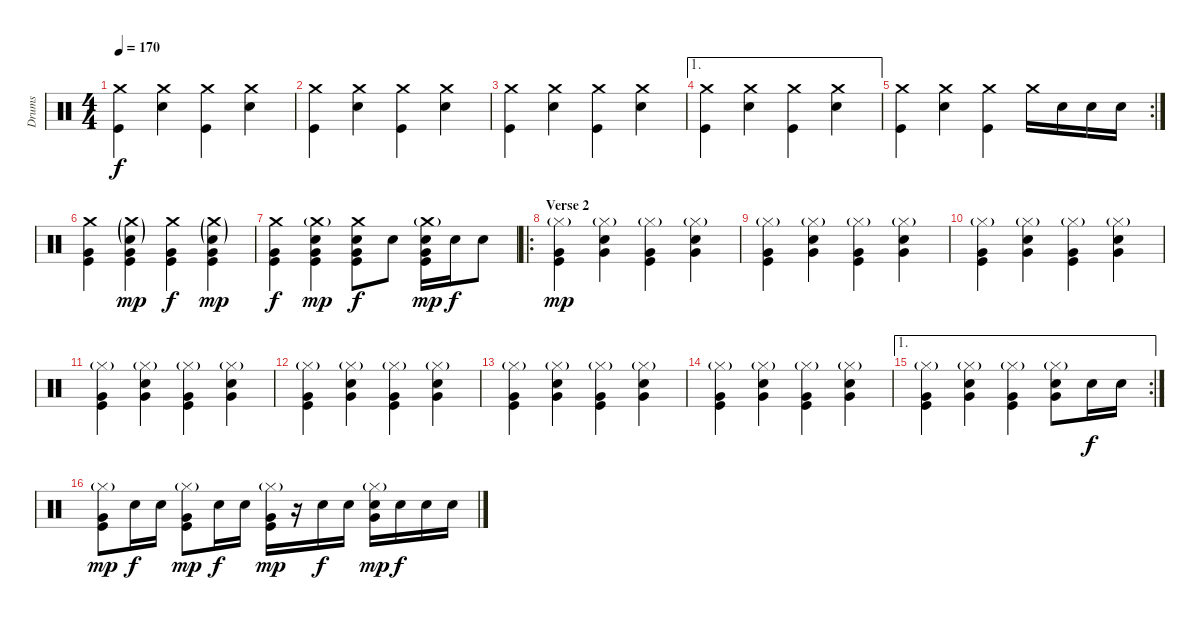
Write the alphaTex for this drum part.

\track ("Drums" "Drums") {instrument percussion}
\staff {score}
\articulation defaults
\ts (4 4)
\tempo 170
\clef neutral
\ks c
("Crash medium (hit)" "Kick (hit)").4{dy f} ("Crash medium (hit)" "Snare (hit) 2").4 ("Crash medium (hit)" "Kick (hit)").4 ("Crash medium (hit)" "Snare (hit) 2").4 |
("Crash medium (hit)" "Kick (hit)").4 ("Crash medium (hit)" "Snare (hit) 2").4 ("Crash medium (hit)" "Kick (hit)").4 ("Crash medium (hit)" "Snare (hit) 2").4 |
("Crash medium (hit)" "Kick (hit)").4 ("Crash medium (hit)" "Snare (hit) 2").4 ("Crash medium (hit)" "Kick (hit)").4 ("Crash medium (hit)" "Snare (hit) 2").4 |
\ae 1
("Crash medium (hit)" "Kick (hit)").4 ("Crash medium (hit)" "Snare (hit) 2").4 ("Crash medium (hit)" "Kick (hit)").4 ("Crash medium (hit)" "Snare (hit) 2").4 |
\rc 2
("Crash medium (hit)" "Kick (hit)").4 ("Crash medium (hit)" "Snare (hit) 2").4 ("Crash medium (hit)" "Kick (hit)").4 "Crash medium (hit)".16 "Snare (hit) 2".16 "Snare (hit) 2".16 "Snare (hit) 2".16 |
("Crash medium (hit)" "Very Low Tom (hit)" "Kick (hit)").4 ("Crash medium (hit)"{g} "Very Low Tom (hit)" "Snare (hit) 2"{g} "Kick (hit)").4{dy mp} ("Crash medium (hit)" "Very Low Tom (hit)" "Kick (hit)").4{dy f} ("Crash medium (hit)"{g} "Very Low Tom (hit)" "Snare (hit) 2"{g} "Kick (hit)").4{dy mp} |
("Crash medium (hit)" "Very Low Tom (hit)" "Kick (hit)").4{dy f} ("Crash medium (hit)"{g} "Very Low Tom (hit)" "Snare (hit) 2" "Kick (hit)").4{dy mp} ("Crash medium (hit)" "Very Low Tom (hit)" "Snare (hit) 2" "Kick (hit)").8{dy f} "Snare (hit) 2".8 ("Crash medium (hit)"{g} "Very Low Tom (hit)" "Snare (hit) 2" "Kick (hit)").16{dy mp} "Snare (hit) 2".16{dy f} "Snare (hit) 2".8 |
\ro
\section ("" "Verse 2")
("Very Low Tom (hit)" "Hi-Hat (closed)"{g} "Kick (hit)").4{dy mp} ("Very Low Tom (hit)" "Hi-Hat (closed)"{g} "Snare (hit) 2").4 ("Very Low Tom (hit)" "Hi-Hat (closed)"{g} "Kick (hit)").4 ("Very Low Tom (hit)" "Hi-Hat (closed)"{g} "Snare (hit) 2").4 |
("Very Low Tom (hit)" "Hi-Hat (closed)"{g} "Kick (hit)").4 ("Very Low Tom (hit)" "Hi-Hat (closed)"{g} "Snare (hit) 2").4 ("Very Low Tom (hit)" "Hi-Hat (closed)"{g} "Kick (hit)").4 ("Very Low Tom (hit)" "Hi-Hat (closed)"{g} "Snare (hit) 2").4 |
("Very Low Tom (hit)" "Hi-Hat (closed)"{g} "Kick (hit)").4 ("Very Low Tom (hit)" "Hi-Hat (closed)"{g} "Snare (hit) 2").4 ("Very Low Tom (hit)" "Hi-Hat (closed)"{g} "Kick (hit)").4 ("Very Low Tom (hit)" "Hi-Hat (closed)"{g} "Snare (hit) 2").4 |
("Very Low Tom (hit)" "Hi-Hat (closed)"{g} "Kick (hit)").4 ("Very Low Tom (hit)" "Hi-Hat (closed)"{g} "Snare (hit) 2").4 ("Very Low Tom (hit)" "Hi-Hat (closed)"{g} "Kick (hit)").4 ("Very Low Tom (hit)" "Hi-Hat (closed)"{g} "Snare (hit) 2").4 |
("Very Low Tom (hit)" "Hi-Hat (closed)"{g} "Kick (hit)").4 ("Very Low Tom (hit)" "Hi-Hat (closed)"{g} "Snare (hit) 2").4 ("Very Low Tom (hit)" "Hi-Hat (closed)"{g} "Kick (hit)").4 ("Very Low Tom (hit)" "Hi-Hat (closed)"{g} "Snare (hit) 2").4 |
("Very Low Tom (hit)" "Hi-Hat (closed)"{g} "Kick (hit)").4 ("Very Low Tom (hit)" "Hi-Hat (closed)"{g} "Snare (hit) 2").4 ("Very Low Tom (hit)" "Hi-Hat (closed)"{g} "Kick (hit)").4 ("Very Low Tom (hit)" "Hi-Hat (closed)"{g} "Snare (hit) 2").4 |
("Very Low Tom (hit)" "Hi-Hat (closed)"{g} "Kick (hit)").4 ("Very Low Tom (hit)" "Hi-Hat (closed)"{g} "Snare (hit) 2").4 ("Very Low Tom (hit)" "Hi-Hat (closed)"{g} "Kick (hit)").4 ("Very Low Tom (hit)" "Hi-Hat (closed)"{g} "Snare (hit) 2").4 |
\ae 1
\rc 2
("Very Low Tom (hit)" "Hi-Hat (closed)"{g} "Kick (hit)").4 ("Very Low Tom (hit)" "Hi-Hat (closed)"{g} "Snare (hit) 2").4 ("Very Low Tom (hit)" "Hi-Hat (closed)"{g} "Kick (hit)").4 ("Very Low Tom (hit)" "Hi-Hat (closed)"{g} "Snare (hit) 2").8 "Snare (hit) 2".16{dy f} "Snare (hit) 2".16 |
("Very Low Tom (hit)" "Hi-Hat (closed)"{g} "Kick (hit)").8{dy mp} "Snare (hit) 2".16{dy f} "Snare (hit) 2".16 ("Very Low Tom (hit)" "Hi-Hat (closed)"{g} "Kick (hit)").8{dy mp} "Snare (hit) 2".16{dy f} "Snare (hit) 2".16 ("Very Low Tom (hit)" "Hi-Hat (closed)"{g} "Kick (hit)").16{dy mp} r.16 "Snare (hit) 2".16{dy f} "Snare (hit) 2".16 ("Very Low Tom (hit)" "Hi-Hat (closed)"{g} "Snare (hit) 2").16{dy mp} "Snare (hit) 2".16{dy f} "Snare (hit) 2".16 "Snare (hit) 2".16
